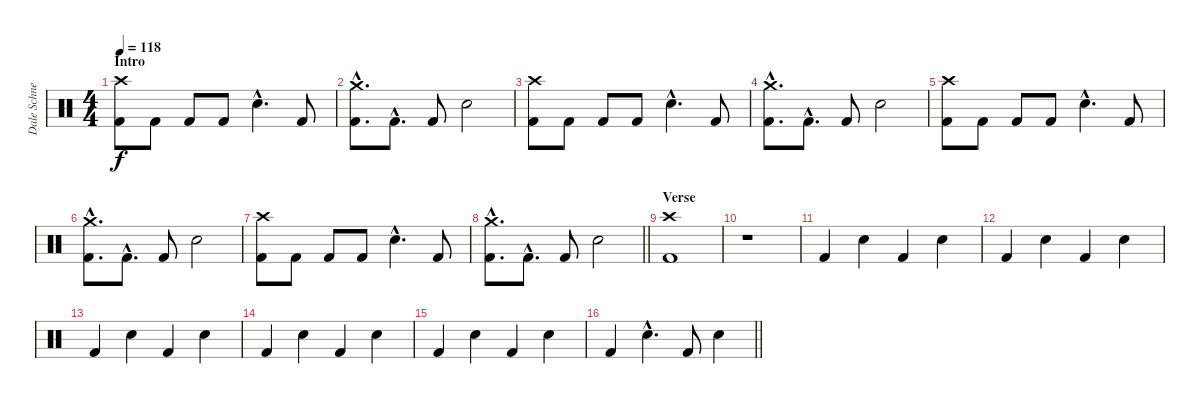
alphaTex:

\track ("Dale Schnettler (Drums)" "Dale Schne") {instrument percussion}
\staff {score}
\articulation defaults
\ts (4 4)
\section ("" "Intro")
\tempo 118
\clef neutral
\ks c
("Crash high (hit)" "Kick (hit) 2").8{dy f} "Kick (hit) 2".8 "Kick (hit) 2".8 "Kick (hit) 2".8 "Electric Snare (hit)"{hac}.4{d} "Kick (hit) 2".8 |
("Crash medium (hit)"{hac} "Kick (hit) 2"{hac}).8{d} "Kick (hit) 2"{hac}.8{d} "Kick (hit) 2".8 "Electric Snare (hit)".2 |
("Crash high (hit)" "Kick (hit) 2").8 "Kick (hit) 2".8 "Kick (hit) 2".8 "Kick (hit) 2".8 "Electric Snare (hit)"{hac}.4{d} "Kick (hit) 2".8 |
("Crash medium (hit)"{hac} "Kick (hit) 2"{hac}).8{d} "Kick (hit) 2"{hac}.8{d} "Kick (hit) 2".8 "Electric Snare (hit)".2 |
("Crash high (hit)" "Kick (hit) 2").8 "Kick (hit) 2".8 "Kick (hit) 2".8 "Kick (hit) 2".8 "Electric Snare (hit)"{hac}.4{d} "Kick (hit) 2".8 |
("Crash medium (hit)"{hac} "Kick (hit) 2"{hac}).8{d} "Kick (hit) 2"{hac}.8{d} "Kick (hit) 2".8 "Electric Snare (hit)".2 |
("Crash high (hit)" "Kick (hit) 2").8 "Kick (hit) 2".8 "Kick (hit) 2".8 "Kick (hit) 2".8 "Electric Snare (hit)"{hac}.4{d} "Kick (hit) 2".8 |
\barLineRight lightlight
("Crash medium (hit)"{hac} "Kick (hit) 2"{hac}).8{d} "Kick (hit) 2"{hac}.8{d} "Kick (hit) 2".8 "Electric Snare (hit)".2 |
\section ("" "Verse")
("Crash high (hit)" "Kick (hit) 2").1 |
r.1 |
"Kick (hit) 2".4 "Electric Snare (hit)".4 "Kick (hit) 2".4 "Electric Snare (hit)".4 |
"Kick (hit) 2".4 "Electric Snare (hit)".4 "Kick (hit) 2".4 "Electric Snare (hit)".4 |
"Kick (hit) 2".4 "Electric Snare (hit)".4 "Kick (hit) 2".4 "Electric Snare (hit)".4 |
"Kick (hit) 2".4 "Electric Snare (hit)".4 "Kick (hit) 2".4 "Electric Snare (hit)".4 |
"Kick (hit) 2".4 "Electric Snare (hit)".4 "Kick (hit) 2".4 "Electric Snare (hit)".4 |
\barLineRight lightlight "Kick (hit) 2".4 "Electric Snare (hit)"{hac}.4{d} "Kick (hit) 2".8 "Electric Snare (hit)".4
